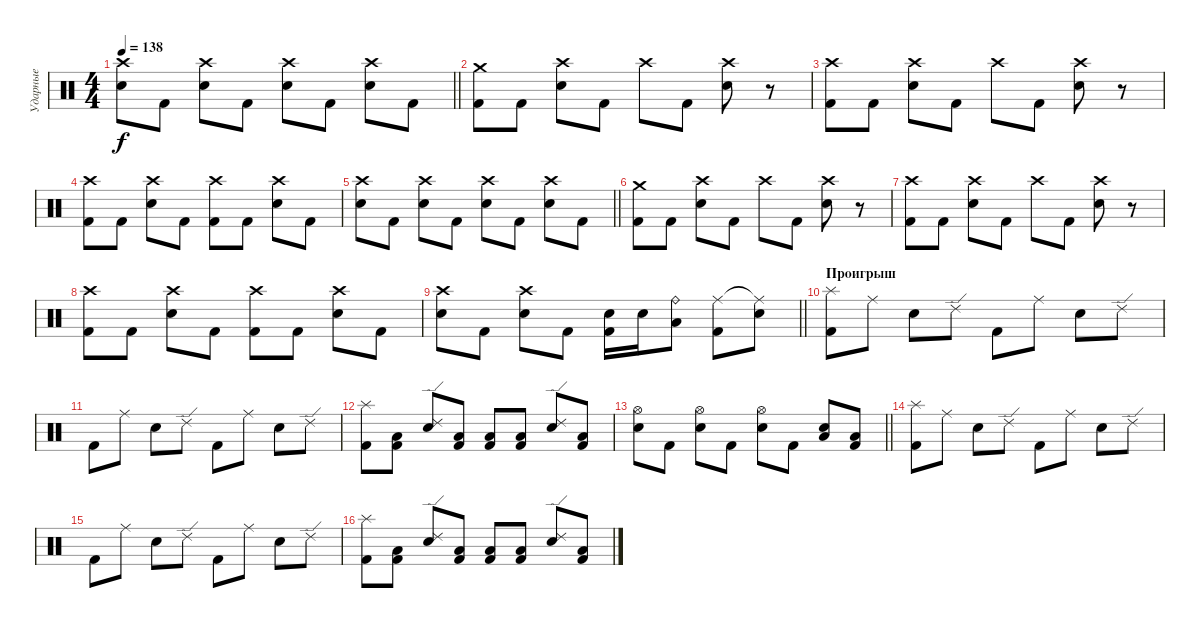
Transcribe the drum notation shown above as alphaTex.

\track ("Ударные" "Ударные") {instrument percussion}
\staff {score}
\articulation defaults
\ts (4 4)
\tempo 138
\clef neutral
\barLineRight lightlight
\ks c
("Crash high (hit)" "Snare (hit) 2").8{dy f} "Kick (hit) 2".8 ("Crash high (hit)" "Snare (hit) 2").8 "Kick (hit) 2".8 ("Crash high (hit)" "Snare (hit) 2").8 "Kick (hit) 2".8 ("Crash high (hit)" "Snare (hit) 2").8 "Kick (hit) 2".8 |
("Crash medium (hit)" "Kick (hit) 2").8 "Kick (hit) 2".8 ("Crash high (hit)" "Snare (hit) 2").8 "Kick (hit) 2".8 "Crash high (hit)".8 "Kick (hit) 2".8 ("Crash high (hit)" "Snare (hit) 2").8 r.8 |
("Crash high (hit)" "Kick (hit) 2").8 "Kick (hit) 2".8 ("Crash high (hit)" "Snare (hit) 2").8 "Kick (hit) 2".8 "Crash high (hit)".8 "Kick (hit) 2".8 ("Crash high (hit)" "Snare (hit) 2").8 r.8 |
("Crash high (hit)" "Kick (hit) 2").8 "Kick (hit) 2".8 ("Crash high (hit)" "Snare (hit) 2").8 "Kick (hit) 2".8 ("Crash high (hit)" "Kick (hit) 2").8 "Kick (hit) 2".8 ("Crash high (hit)" "Snare (hit) 2").8 "Kick (hit) 2".8 |
\barLineRight lightlight
("Crash high (hit)" "Snare (hit) 2").8 "Kick (hit) 2".8 ("Crash high (hit)" "Snare (hit) 2").8 "Kick (hit) 2".8 ("Crash high (hit)" "Snare (hit) 2").8 "Kick (hit) 2".8 ("Crash high (hit)" "Snare (hit) 2").8 "Kick (hit) 2".8 |
("Crash medium (hit)" "Kick (hit) 2").8 "Kick (hit) 2".8 ("Crash high (hit)" "Snare (hit) 2").8 "Kick (hit) 2".8 "Crash high (hit)".8 "Kick (hit) 2".8 ("Crash high (hit)" "Snare (hit) 2").8 r.8 |
("Crash high (hit)" "Kick (hit) 2").8 "Kick (hit) 2".8 ("Crash high (hit)" "Snare (hit) 2").8 "Kick (hit) 2".8 "Crash high (hit)".8 "Kick (hit) 2".8 ("Crash high (hit)" "Snare (hit) 2").8 r.8 |
("Crash high (hit)" "Kick (hit) 2").8 "Kick (hit) 2".8 ("Crash high (hit)" "Snare (hit) 2").8 "Kick (hit) 2".8 ("Crash high (hit)" "Kick (hit) 2").8 "Kick (hit) 2".8 ("Crash high (hit)" "Snare (hit) 2").8 "Kick (hit) 2".8 |
\barLineRight lightlight
("Crash high (hit)" "Snare (hit) 2").8 "Kick (hit) 2".8 ("Crash high (hit)" "Snare (hit) 2").8 "Kick (hit) 2".8 ("Snare (hit) 2" "Kick (hit) 2").16 "Snare (hit) 2".16 ("Ride (bell)" "Low Tom (hit)").8 ("Ride (middle)" "Kick (hit) 2").8 ("Ride (middle)"{t} "Snare (hit) 2").8 |
\section ("" "Проигрыш")
("Splash (hit)" "Kick (hit) 2").8 "Ride (middle)".8 "Snare (hit) 2".8 "Ride (edge) 2".8 "Kick (hit) 2".8 "Ride (middle)".8 "Snare (hit) 2".8 "Ride (edge) 2".8 |
"Kick (hit) 2".8 "Ride (middle)".8 "Snare (hit) 2".8 "Ride (edge) 2".8 "Kick (hit) 2".8 "Ride (middle)".8 "Snare (hit) 2".8 "Ride (edge) 2".8 |
("Splash (hit)" "Kick (hit) 2").8 ("Low Floor Tom (hit)" "Kick (hit) 2").8 ("Ride (edge) 2" "Snare (hit) 2").8 ("Low Floor Tom (hit)" "Kick (hit) 2").8 ("Low Floor Tom (hit)" "Kick (hit) 2").8 ("Low Tom (hit)" "Kick (hit) 2").8 ("Ride (edge) 2" "Snare (hit) 2").8 ("Low Floor Tom (hit)" "Kick (hit) 2").8 |
\barLineRight lightlight
("Hi-Hat (open)" "Snare (hit) 2").8 "Kick (hit) 2".8 ("Hi-Hat (open)" "Snare (hit) 2").8 "Kick (hit) 2".8 ("Hi-Hat (open)" "Snare (hit) 2").8 "Kick (hit) 2".8 ("Low Tom (hit)" "Snare (hit) 2").8 ("Low Floor Tom (hit)" "Kick (hit) 2").8 |
("Splash (hit)" "Kick (hit) 2").8 "Ride (middle)".8 "Snare (hit) 2".8 "Ride (edge) 2".8 "Kick (hit) 2".8 "Ride (middle)".8 "Snare (hit) 2".8 "Ride (edge) 2".8 |
"Kick (hit) 2".8 "Ride (middle)".8 "Snare (hit) 2".8 "Ride (edge) 2".8 "Kick (hit) 2".8 "Ride (middle)".8 "Snare (hit) 2".8 "Ride (edge) 2".8 |
("Splash (hit)" "Kick (hit) 2").8 ("Low Floor Tom (hit)" "Kick (hit) 2").8 ("Ride (edge) 2" "Snare (hit) 2").8 ("Low Floor Tom (hit)" "Kick (hit) 2").8 ("Low Floor Tom (hit)" "Kick (hit) 2").8 ("Low Tom (hit)" "Kick (hit) 2").8 ("Ride (edge) 2" "Snare (hit) 2").8 ("Low Floor Tom (hit)" "Kick (hit) 2").8
